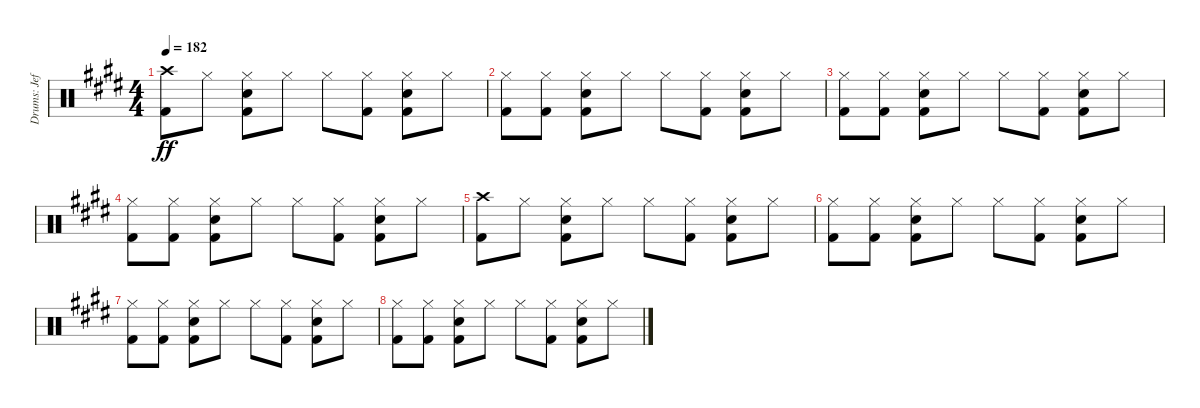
\track ("Drums: Jeff" "Drums: Jef") {instrument percussion}
\staff {score}
\articulation defaults
\ts (4 4)
\tempo 182
\clef neutral
\ks e
("Crash high (hit)" "Kick (hit) 2").8{dy ff} "Hi-Hat (closed)".8 ("Hi-Hat (closed)" "Electric Snare (hit)" "Kick (hit) 2").8 "Hi-Hat (closed)".8 "Hi-Hat (closed)".8 ("Hi-Hat (closed)" "Kick (hit) 2").8 ("Hi-Hat (closed)" "Electric Snare (hit)" "Kick (hit) 2").8 "Hi-Hat (closed)".8 |
("Hi-Hat (closed)" "Kick (hit) 2").8 ("Hi-Hat (closed)" "Kick (hit) 2").8 ("Hi-Hat (closed)" "Electric Snare (hit)" "Kick (hit) 2").8 "Hi-Hat (closed)".8 "Hi-Hat (closed)".8 ("Hi-Hat (closed)" "Kick (hit) 2").8 ("Hi-Hat (closed)" "Electric Snare (hit)" "Kick (hit) 2").8 "Hi-Hat (closed)".8 |
("Hi-Hat (closed)" "Kick (hit) 2").8 ("Hi-Hat (closed)" "Kick (hit) 2").8 ("Hi-Hat (closed)" "Electric Snare (hit)" "Kick (hit) 2").8 "Hi-Hat (closed)".8 "Hi-Hat (closed)".8 ("Hi-Hat (closed)" "Kick (hit) 2").8 ("Hi-Hat (closed)" "Electric Snare (hit)" "Kick (hit) 2").8 "Hi-Hat (closed)".8 |
("Hi-Hat (closed)" "Kick (hit) 2").8 ("Hi-Hat (closed)" "Kick (hit) 2").8 ("Hi-Hat (closed)" "Electric Snare (hit)" "Kick (hit) 2").8 "Hi-Hat (closed)".8 "Hi-Hat (closed)".8 ("Hi-Hat (closed)" "Kick (hit) 2").8 ("Hi-Hat (closed)" "Electric Snare (hit)" "Kick (hit) 2").8 "Hi-Hat (closed)".8 |
("Crash high (hit)" "Kick (hit) 2").8 "Hi-Hat (closed)".8 ("Hi-Hat (closed)" "Electric Snare (hit)" "Kick (hit) 2").8 "Hi-Hat (closed)".8 "Hi-Hat (closed)".8 ("Hi-Hat (closed)" "Kick (hit) 2").8 ("Hi-Hat (closed)" "Electric Snare (hit)" "Kick (hit) 2").8 "Hi-Hat (closed)".8 |
("Hi-Hat (closed)" "Kick (hit) 2").8 ("Hi-Hat (closed)" "Kick (hit) 2").8 ("Hi-Hat (closed)" "Electric Snare (hit)" "Kick (hit) 2").8 "Hi-Hat (closed)".8 "Hi-Hat (closed)".8 ("Hi-Hat (closed)" "Kick (hit) 2").8 ("Hi-Hat (closed)" "Electric Snare (hit)" "Kick (hit) 2").8 "Hi-Hat (closed)".8 |
("Hi-Hat (closed)" "Kick (hit) 2").8 ("Hi-Hat (closed)" "Kick (hit) 2").8 ("Hi-Hat (closed)" "Electric Snare (hit)" "Kick (hit) 2").8 "Hi-Hat (closed)".8 "Hi-Hat (closed)".8 ("Hi-Hat (closed)" "Kick (hit) 2").8 ("Hi-Hat (closed)" "Electric Snare (hit)" "Kick (hit) 2").8 "Hi-Hat (closed)".8 |
("Hi-Hat (closed)" "Kick (hit) 2").8 ("Hi-Hat (closed)" "Kick (hit) 2").8 ("Hi-Hat (closed)" "Electric Snare (hit)" "Kick (hit) 2").8 "Hi-Hat (closed)".8 "Hi-Hat (closed)".8 ("Hi-Hat (closed)" "Kick (hit) 2").8 ("Hi-Hat (closed)" "Electric Snare (hit)" "Kick (hit) 2").8 "Hi-Hat (closed)".8
